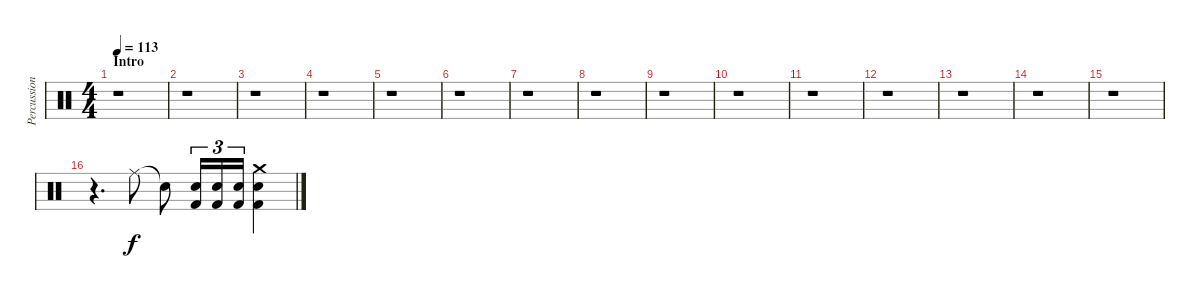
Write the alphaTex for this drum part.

\track ("Percussion" "Percussion") {instrument percussion}
\staff {score}
\articulation defaults
\ts (4 4)
\section ("" "Intro")
\tempo 113
\clef neutral
\ks c
r.1{dy f} |
r.1 |
r.1 |
r.1 |
r.1 |
r.1 |
r.1 |
r.1 |
r.1 |
r.1 |
r.1 |
r.1 |
r.1 |
r.1 |
r.1 |
r.4{d} "Ride (middle)".8 "Snare (hit)"{t}.8 ("Kick (hit) 2" "Snare (hit) 2").16{tu (3 2)} ("Kick (hit) 2" "Snare (hit) 2").16{tu (3 2)} ("Kick (hit) 2" "Snare (hit) 2").16{tu (3 2)} ("Kick (hit) 2" "Snare (hit) 2" "Crash medium (hit)").4
